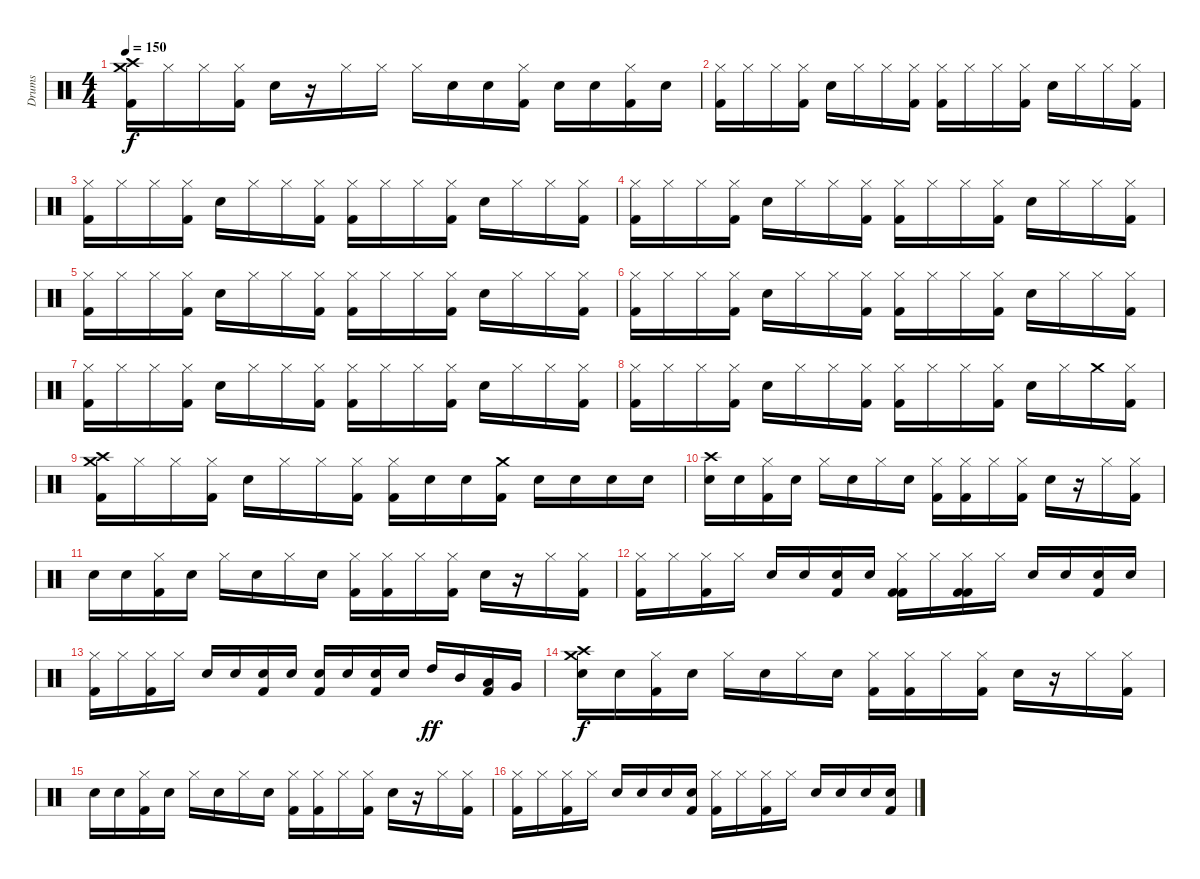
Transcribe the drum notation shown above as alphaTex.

\track ("Drums" "Drums") {instrument percussion}
\staff {score}
\articulation defaults
\ts (4 4)
\tempo 150
\clef neutral
\ks c
("Crash medium (hit)" "Crash high (hit)" "Kick (hit) 2").16{dy f} "Hi-Hat (closed)".16 "Hi-Hat (closed)".16 ("Hi-Hat (closed)" "Kick (hit) 2").16 "Snare (hit) 2".16 r.16 "Hi-Hat (closed)".16 "Hi-Hat (closed)".16 "Hi-Hat (closed)".16 "Snare (hit) 2".16 "Snare (hit) 2".16 ("Hi-Hat (closed)" "Kick (hit) 2").16 "Snare (hit) 2".16 "Snare (hit) 2".16 ("Hi-Hat (closed)" "Kick (hit) 2").16 "Snare (hit) 2".16 |
("Hi-Hat (closed)" "Kick (hit) 2").16 "Hi-Hat (closed)".16 "Hi-Hat (closed)".16 ("Hi-Hat (closed)" "Kick (hit) 2").16 "Snare (hit) 2".16 "Hi-Hat (closed)".16 "Hi-Hat (closed)".16 ("Hi-Hat (closed)" "Kick (hit) 2").16 ("Hi-Hat (closed)" "Kick (hit) 2").16 "Hi-Hat (closed)".16 "Hi-Hat (closed)".16 ("Hi-Hat (closed)" "Kick (hit) 2").16 "Snare (hit) 2".16 "Hi-Hat (closed)".16 "Hi-Hat (closed)".16 ("Hi-Hat (closed)" "Kick (hit) 2").16 |
("Hi-Hat (closed)" "Kick (hit) 2").16 "Hi-Hat (closed)".16 "Hi-Hat (closed)".16 ("Hi-Hat (closed)" "Kick (hit) 2").16 "Snare (hit) 2".16 "Hi-Hat (closed)".16 "Hi-Hat (closed)".16 ("Hi-Hat (closed)" "Kick (hit) 2").16 ("Hi-Hat (closed)" "Kick (hit) 2").16 "Hi-Hat (closed)".16 "Hi-Hat (closed)".16 ("Hi-Hat (closed)" "Kick (hit) 2").16 "Snare (hit) 2".16 "Hi-Hat (closed)".16 "Hi-Hat (closed)".16 ("Hi-Hat (closed)" "Kick (hit) 2").16 |
("Hi-Hat (closed)" "Kick (hit) 2").16 "Hi-Hat (closed)".16 "Hi-Hat (closed)".16 ("Hi-Hat (closed)" "Kick (hit) 2").16 "Snare (hit) 2".16 "Hi-Hat (closed)".16 "Hi-Hat (closed)".16 ("Hi-Hat (closed)" "Kick (hit) 2").16 ("Hi-Hat (closed)" "Kick (hit) 2").16 "Hi-Hat (closed)".16 "Hi-Hat (closed)".16 ("Hi-Hat (closed)" "Kick (hit) 2").16 "Snare (hit) 2".16 "Hi-Hat (closed)".16 "Hi-Hat (closed)".16 ("Hi-Hat (closed)" "Kick (hit) 2").16 |
("Hi-Hat (closed)" "Kick (hit) 2").16 "Hi-Hat (closed)".16 "Hi-Hat (closed)".16 ("Hi-Hat (closed)" "Kick (hit) 2").16 "Snare (hit) 2".16 "Hi-Hat (closed)".16 "Hi-Hat (closed)".16 ("Hi-Hat (closed)" "Kick (hit) 2").16 ("Hi-Hat (closed)" "Kick (hit) 2").16 "Hi-Hat (closed)".16 "Hi-Hat (closed)".16 ("Hi-Hat (closed)" "Kick (hit) 2").16 "Snare (hit) 2".16 "Hi-Hat (closed)".16 "Hi-Hat (closed)".16 ("Hi-Hat (closed)" "Kick (hit) 2").16 |
("Hi-Hat (closed)" "Kick (hit) 2").16 "Hi-Hat (closed)".16 "Hi-Hat (closed)".16 ("Hi-Hat (closed)" "Kick (hit) 2").16 "Snare (hit) 2".16 "Hi-Hat (closed)".16 "Hi-Hat (closed)".16 ("Hi-Hat (closed)" "Kick (hit) 2").16 ("Hi-Hat (closed)" "Kick (hit) 2").16 "Hi-Hat (closed)".16 "Hi-Hat (closed)".16 ("Hi-Hat (closed)" "Kick (hit) 2").16 "Snare (hit) 2".16 "Hi-Hat (closed)".16 "Hi-Hat (closed)".16 ("Hi-Hat (closed)" "Kick (hit) 2").16 |
("Hi-Hat (closed)" "Kick (hit) 2").16 "Hi-Hat (closed)".16 "Hi-Hat (closed)".16 ("Hi-Hat (closed)" "Kick (hit) 2").16 "Snare (hit) 2".16 "Hi-Hat (closed)".16 "Hi-Hat (closed)".16 ("Hi-Hat (closed)" "Kick (hit) 2").16 ("Hi-Hat (closed)" "Kick (hit) 2").16 "Hi-Hat (closed)".16 "Hi-Hat (closed)".16 ("Hi-Hat (closed)" "Kick (hit) 2").16 "Snare (hit) 2".16 "Hi-Hat (closed)".16 "Hi-Hat (closed)".16 ("Hi-Hat (closed)" "Kick (hit) 2").16 |
("Hi-Hat (closed)" "Kick (hit) 2").16 "Hi-Hat (closed)".16 "Hi-Hat (closed)".16 ("Hi-Hat (closed)" "Kick (hit) 2").16 "Snare (hit) 2".16 "Hi-Hat (closed)".16 "Hi-Hat (closed)".16 ("Hi-Hat (closed)" "Kick (hit) 2").16 ("Hi-Hat (closed)" "Kick (hit) 2").16 "Hi-Hat (closed)".16 "Hi-Hat (closed)".16 ("Hi-Hat (closed)" "Kick (hit) 2").16 "Snare (hit) 2".16 "Hi-Hat (closed)".16 "Crash medium (hit)".16 ("Hi-Hat (closed)" "Kick (hit) 2").16 |
("Crash medium (hit)" "Crash high (hit)" "Kick (hit) 2").16 "Hi-Hat (closed)".16 "Hi-Hat (closed)".16 ("Hi-Hat (closed)" "Kick (hit) 2").16 "Snare (hit) 2".16 "Hi-Hat (closed)".16 "Hi-Hat (closed)".16 ("Hi-Hat (closed)" "Kick (hit) 2").16 ("Hi-Hat (closed)" "Kick (hit) 2").16 "Snare (hit) 2".16 "Snare (hit) 2".16 ("Crash medium (hit)" "Kick (hit) 2").16 "Snare (hit) 2".16 "Snare (hit) 2".16 "Snare (hit) 2".16 "Snare (hit) 2".16 |
("Crash high (hit)" "Snare (hit) 2").16 "Snare (hit) 2".16 ("Hi-Hat (closed)" "Kick (hit) 2").16 "Snare (hit) 2".16 "Hi-Hat (closed)".16 "Snare (hit) 2".16 "Hi-Hat (closed)".16 "Snare (hit) 2".16 ("Hi-Hat (closed)" "Kick (hit) 2").16 ("Hi-Hat (closed)" "Kick (hit) 2").16 "Hi-Hat (closed)".16 ("Hi-Hat (closed)" "Kick (hit) 2").16 "Snare (hit) 2".16 r.16 "Hi-Hat (closed)".16 ("Hi-Hat (closed)" "Kick (hit) 2").16 |
"Snare (hit) 2".16 "Snare (hit) 2".16 ("Hi-Hat (closed)" "Kick (hit) 2").16 "Snare (hit) 2".16 "Hi-Hat (closed)".16 "Snare (hit) 2".16 "Hi-Hat (closed)".16 "Snare (hit) 2".16 ("Hi-Hat (closed)" "Kick (hit) 2").16 ("Hi-Hat (closed)" "Kick (hit) 2").16 "Hi-Hat (closed)".16 ("Hi-Hat (closed)" "Kick (hit) 2").16 "Snare (hit) 2".16 r.16 "Hi-Hat (closed)".16 ("Hi-Hat (closed)" "Kick (hit) 2").16 |
("Hi-Hat (closed)" "Kick (hit) 2").16 "Hi-Hat (closed)".16 ("Hi-Hat (closed)" "Kick (hit) 2").16 "Hi-Hat (closed)".16 "Snare (hit) 2".16 "Snare (hit) 2".16 ("Snare (hit) 2" "Kick (hit) 2").16 "Snare (hit) 2".16 ("Kick (hit) 2" "Hi-Hat (closed)" "Kick (hit) 2").16 "Hi-Hat (closed)".16 ("Kick (hit) 2" "Hi-Hat (closed)" "Kick (hit) 2").16 "Hi-Hat (closed)".16 "Snare (hit) 2".16 "Snare (hit) 2".16 ("Snare (hit) 2" "Kick (hit) 2").16 "Snare (hit) 2".16 |
("Hi-Hat (closed)" "Kick (hit) 2").16 "Hi-Hat (closed)".16 ("Hi-Hat (closed)" "Kick (hit) 2").16 "Hi-Hat (closed)".16 "Snare (hit) 2".16 "Snare (hit) 2".16 ("Snare (hit) 2" "Kick (hit) 2").16 "Snare (hit) 2".16 ("Snare (hit) 2" "Kick (hit) 2").16 "Snare (hit) 2".16 ("Snare (hit) 2" "Kick (hit) 2").16 "Snare (hit) 2".16 "High Tom (hit)".16{dy ff} "Mid Tom (hit)".16 ("Low Tom (hit)" "Kick (hit) 2").16 "Very Low Tom (hit)".16 |
("Crash medium (hit)" "Crash high (hit)" "Snare (hit) 2").16{dy f} "Snare (hit) 2".16 ("Hi-Hat (closed)" "Kick (hit) 2").16 "Snare (hit) 2".16 "Hi-Hat (closed)".16 "Snare (hit) 2".16 "Hi-Hat (closed)".16 "Snare (hit) 2".16 ("Hi-Hat (closed)" "Kick (hit) 2").16 ("Hi-Hat (closed)" "Kick (hit) 2").16 "Hi-Hat (closed)".16 ("Hi-Hat (closed)" "Kick (hit) 2").16 "Snare (hit) 2".16 r.16 "Hi-Hat (closed)".16 ("Hi-Hat (closed)" "Kick (hit) 2").16 |
"Snare (hit) 2".16 "Snare (hit) 2".16 ("Hi-Hat (closed)" "Kick (hit) 2").16 "Snare (hit) 2".16 "Hi-Hat (closed)".16 "Snare (hit) 2".16 "Hi-Hat (closed)".16 "Snare (hit) 2".16 ("Hi-Hat (closed)" "Kick (hit) 2").16 ("Hi-Hat (closed)" "Kick (hit) 2").16 "Hi-Hat (closed)".16 ("Hi-Hat (closed)" "Kick (hit) 2").16 "Snare (hit) 2".16 r.16 "Hi-Hat (closed)".16 ("Hi-Hat (closed)" "Kick (hit) 2").16 |
("Hi-Hat (closed)" "Kick (hit) 2").16 "Hi-Hat (closed)".16 ("Hi-Hat (closed)" "Kick (hit) 2").16 "Hi-Hat (closed)".16 "Snare (hit) 2".16 "Snare (hit) 2".16 "Snare (hit) 2".16 ("Snare (hit) 2" "Kick (hit) 2").16 ("Hi-Hat (closed)" "Kick (hit) 2").16 "Hi-Hat (closed)".16 ("Hi-Hat (closed)" "Kick (hit) 2").16 "Hi-Hat (closed)".16 "Snare (hit) 2".16 "Snare (hit) 2".16 "Snare (hit) 2".16 ("Snare (hit) 2" "Kick (hit) 2").16
